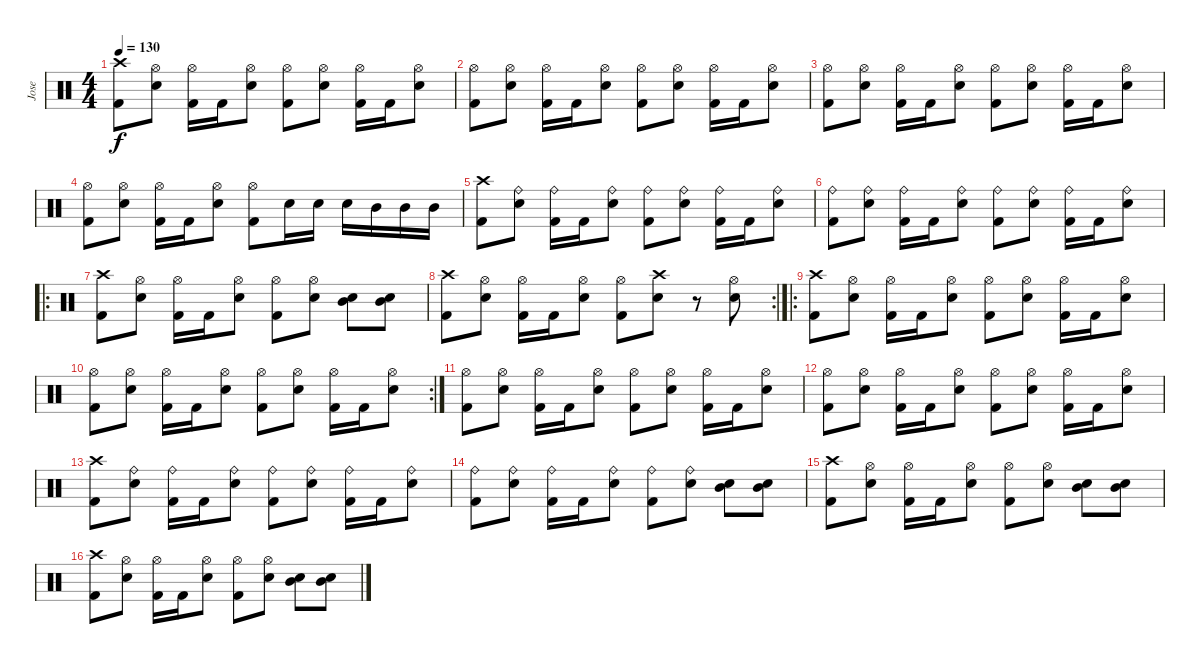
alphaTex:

\track ("Jose" "Jose") {instrument percussion}
\staff {score}
\articulation defaults
\ts (4 4)
\tempo 130
\clef neutral
\ks c
("Crash high (hit)" "Kick (hit) 2").8{dy f} ("Hi-Hat (open)" "Electric Snare (hit)").8 ("Hi-Hat (open)" "Kick (hit) 2").16 "Kick (hit) 2".16 ("Hi-Hat (open)" "Electric Snare (hit)").8 ("Hi-Hat (open)" "Kick (hit) 2").8 ("Hi-Hat (open)" "Electric Snare (hit)").8 ("Hi-Hat (open)" "Kick (hit) 2").16 "Kick (hit) 2".16 ("Hi-Hat (open)" "Electric Snare (hit)").8 |
("Hi-Hat (open)" "Kick (hit) 2").8 ("Hi-Hat (open)" "Electric Snare (hit)").8 ("Hi-Hat (open)" "Kick (hit) 2").16 "Kick (hit) 2".16 ("Hi-Hat (open)" "Electric Snare (hit)").8 ("Hi-Hat (open)" "Kick (hit) 2").8 ("Hi-Hat (open)" "Electric Snare (hit)").8 ("Hi-Hat (open)" "Kick (hit) 2").16 "Kick (hit) 2".16 ("Hi-Hat (open)" "Electric Snare (hit)").8 |
("Hi-Hat (open)" "Kick (hit) 2").8 ("Hi-Hat (open)" "Electric Snare (hit)").8 ("Hi-Hat (open)" "Kick (hit) 2").16 "Kick (hit) 2".16 ("Hi-Hat (open)" "Electric Snare (hit)").8 ("Hi-Hat (open)" "Kick (hit) 2").8 ("Hi-Hat (open)" "Electric Snare (hit)").8 ("Hi-Hat (open)" "Kick (hit) 2").16 "Kick (hit) 2".16 ("Hi-Hat (open)" "Electric Snare (hit)").8 |
("Hi-Hat (open)" "Kick (hit) 2").8 ("Hi-Hat (open)" "Electric Snare (hit)").8 ("Hi-Hat (open)" "Kick (hit) 2").16 "Kick (hit) 2".16 ("Hi-Hat (open)" "Electric Snare (hit)").8 ("Hi-Hat (open)" "Kick (hit) 2").8 "Electric Snare (hit)".16 "Electric Snare (hit)".16 "Electric Snare (hit)".16 "Mid Tom (hit)".16 "Mid Tom (hit)".16 "Mid Tom (hit)".16 |
("Crash high (hit)" "Kick (hit) 2").8 ("Ride (bell)" "Electric Snare (hit)").8 ("Ride (bell)" "Kick (hit) 2").16 "Kick (hit) 2".16 ("Ride (bell)" "Electric Snare (hit)").8 ("Ride (bell)" "Kick (hit) 2").8 ("Ride (bell)" "Electric Snare (hit)").8 ("Ride (bell)" "Kick (hit) 2").16 "Kick (hit) 2".16 ("Ride (bell)" "Electric Snare (hit)").8 |
("Ride (bell)" "Kick (hit) 2").8 ("Ride (bell)" "Electric Snare (hit)").8 ("Ride (bell)" "Kick (hit) 2").16 "Kick (hit) 2".16 ("Ride (bell)" "Electric Snare (hit)").8 ("Ride (bell)" "Kick (hit) 2").8 ("Ride (bell)" "Electric Snare (hit)").8 ("Ride (bell)" "Kick (hit) 2").16 "Kick (hit) 2".16 ("Ride (bell)" "Electric Snare (hit)").8 |
\ro
("Crash high (hit)" "Kick (hit) 2").8 ("Hi-Hat (open)" "Electric Snare (hit)").8 ("Hi-Hat (open)" "Kick (hit) 2").16 "Kick (hit) 2".16 ("Hi-Hat (open)" "Electric Snare (hit)").8 ("Hi-Hat (open)" "Kick (hit) 2").8 ("Hi-Hat (open)" "Electric Snare (hit)").8 ("Mid Tom (hit)" "Electric Snare (hit)").8 ("Mid Tom (hit)" "Electric Snare (hit)").8 |
\rc 2
("Crash high (hit)" "Kick (hit) 2").8 ("Hi-Hat (open)" "Electric Snare (hit)").8 ("Hi-Hat (open)" "Kick (hit) 2").16 "Kick (hit) 2".16 ("Hi-Hat (open)" "Electric Snare (hit)").8 ("Hi-Hat (open)" "Kick (hit) 2").8 ("Crash high (hit)" "Electric Snare (hit)").8 r.8 ("Hi-Hat (open)" "Electric Snare (hit)").8 |
\ro
("Crash high (hit)" "Kick (hit) 2").8 ("Hi-Hat (open)" "Electric Snare (hit)").8 ("Hi-Hat (open)" "Kick (hit) 2").16 "Kick (hit) 2".16 ("Hi-Hat (open)" "Electric Snare (hit)").8 ("Hi-Hat (open)" "Kick (hit) 2").8 ("Hi-Hat (open)" "Electric Snare (hit)").8 ("Hi-Hat (open)" "Kick (hit) 2").16 "Kick (hit) 2".16 ("Hi-Hat (open)" "Electric Snare (hit)").8 |
\rc 2
("Hi-Hat (open)" "Kick (hit) 2").8 ("Hi-Hat (open)" "Electric Snare (hit)").8 ("Hi-Hat (open)" "Kick (hit) 2").16 "Kick (hit) 2".16 ("Hi-Hat (open)" "Electric Snare (hit)").8 ("Hi-Hat (open)" "Kick (hit) 2").8 ("Hi-Hat (open)" "Electric Snare (hit)").8 ("Hi-Hat (open)" "Kick (hit) 2").16 "Kick (hit) 2".16 ("Hi-Hat (open)" "Electric Snare (hit)").8 |
("Hi-Hat (open)" "Kick (hit) 2").8 ("Hi-Hat (open)" "Electric Snare (hit)").8 ("Hi-Hat (open)" "Kick (hit) 2").16 "Kick (hit) 2".16 ("Hi-Hat (open)" "Electric Snare (hit)").8 ("Hi-Hat (open)" "Kick (hit) 2").8 ("Hi-Hat (open)" "Electric Snare (hit)").8 ("Hi-Hat (open)" "Kick (hit) 2").16 "Kick (hit) 2".16 ("Hi-Hat (open)" "Electric Snare (hit)").8 |
("Hi-Hat (open)" "Kick (hit) 2").8 ("Hi-Hat (open)" "Electric Snare (hit)").8 ("Hi-Hat (open)" "Kick (hit) 2").16 "Kick (hit) 2".16 ("Hi-Hat (open)" "Electric Snare (hit)").8 ("Hi-Hat (open)" "Kick (hit) 2").8 ("Hi-Hat (open)" "Electric Snare (hit)").8 ("Hi-Hat (open)" "Kick (hit) 2").16 "Kick (hit) 2".16 ("Hi-Hat (open)" "Electric Snare (hit)").8 |
("Crash high (hit)" "Kick (hit) 2").8 ("Ride (bell)" "Electric Snare (hit)").8 ("Ride (bell)" "Kick (hit) 2").16 "Kick (hit) 2".16 ("Ride (bell)" "Electric Snare (hit)").8 ("Ride (bell)" "Kick (hit) 2").8 ("Ride (bell)" "Electric Snare (hit)").8 ("Ride (bell)" "Kick (hit) 2").16 "Kick (hit) 2".16 ("Ride (bell)" "Electric Snare (hit)").8 |
("Ride (bell)" "Kick (hit) 2").8 ("Ride (bell)" "Electric Snare (hit)").8 ("Ride (bell)" "Kick (hit) 2").16 "Kick (hit) 2".16 ("Ride (bell)" "Electric Snare (hit)").8 ("Ride (bell)" "Kick (hit) 2").8 ("Ride (bell)" "Electric Snare (hit)").8 ("Mid Tom (hit)" "Electric Snare (hit)").8 ("Mid Tom (hit)" "Electric Snare (hit)").8 |
("Crash high (hit)" "Kick (hit) 2").8 ("Hi-Hat (open)" "Electric Snare (hit)").8 ("Hi-Hat (open)" "Kick (hit) 2").16 "Kick (hit) 2".16 ("Hi-Hat (open)" "Electric Snare (hit)").8 ("Hi-Hat (open)" "Kick (hit) 2").8 ("Hi-Hat (open)" "Electric Snare (hit)").8 ("Mid Tom (hit)" "Electric Snare (hit)").8 ("Mid Tom (hit)" "Electric Snare (hit)").8 |
("Crash high (hit)" "Kick (hit) 2").8 ("Hi-Hat (open)" "Electric Snare (hit)").8 ("Hi-Hat (open)" "Kick (hit) 2").16 "Kick (hit) 2".16 ("Hi-Hat (open)" "Electric Snare (hit)").8 ("Hi-Hat (open)" "Kick (hit) 2").8 ("Hi-Hat (open)" "Electric Snare (hit)").8 ("Mid Tom (hit)" "Electric Snare (hit)").8 ("Mid Tom (hit)" "Electric Snare (hit)").8
